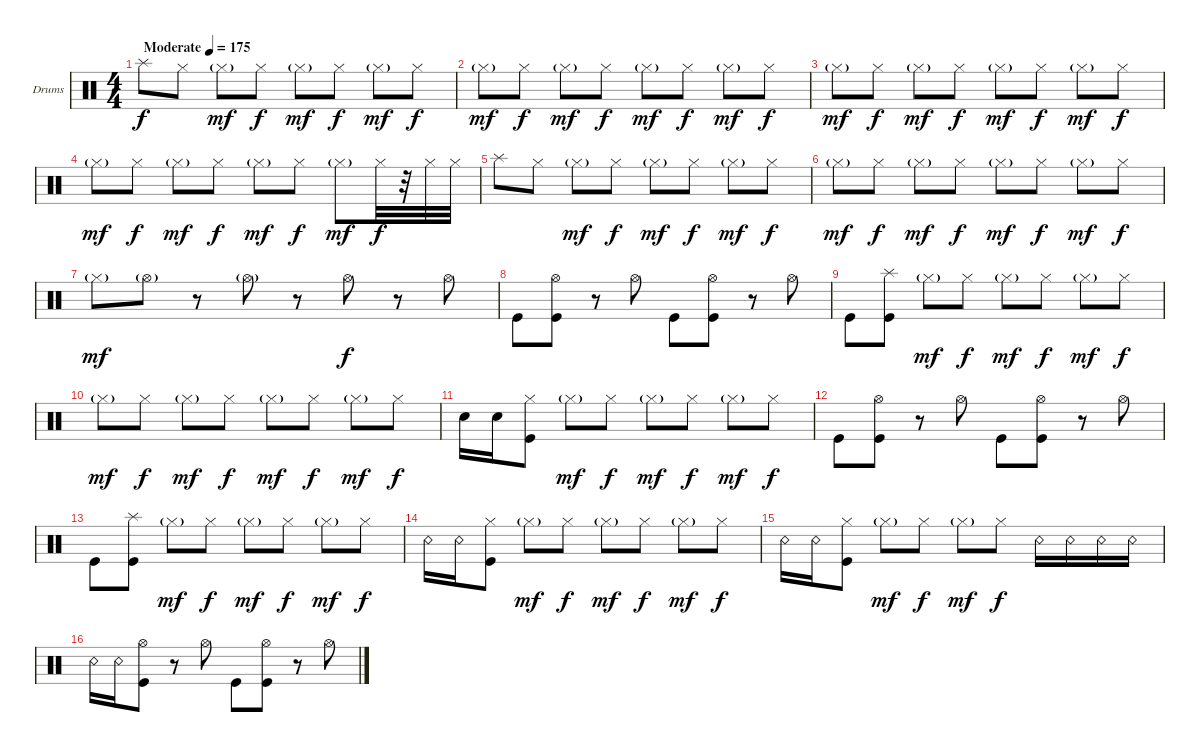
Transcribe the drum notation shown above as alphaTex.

\bracketExtendMode groupsimilarinstruments
\firstSystemTrackNameOrientation horizontal
\otherSystemsTrackNameOrientation horizontal
\track ("Drumkit" "Drums") {instrument percussion}
\staff {score}
\articulation defaults
\ts (4 4)
\beaming (8 2 2 2 2)
\tempo (175 "Moderate")
\clef neutral
\ks c "Splash (hit)".8{dy f} "Hi-Hat (closed)".8 "Hi-Hat (closed)"{g}.8{dy mf} "Hi-Hat (closed)".8{dy f} "Hi-Hat (closed)"{g}.8{dy mf} "Hi-Hat (closed)".8{dy f} "Hi-Hat (closed)"{g}.8{dy mf} "Hi-Hat (closed)".8{dy f}
|
"Hi-Hat (closed)"{g}.8{dy mf} "Hi-Hat (closed)".8{dy f} "Hi-Hat (closed)"{g}.8{dy mf} "Hi-Hat (closed)".8{dy f} "Hi-Hat (closed)"{g}.8{dy mf} "Hi-Hat (closed)".8{dy f} "Hi-Hat (closed)"{g}.8{dy mf} "Hi-Hat (closed)".8{dy f} |
"Hi-Hat (closed)"{g}.8{dy mf} "Hi-Hat (closed)".8{dy f} "Hi-Hat (closed)"{g}.8{dy mf} "Hi-Hat (closed)".8{dy f} "Hi-Hat (closed)"{g}.8{dy mf} "Hi-Hat (closed)".8{dy f} "Hi-Hat (closed)"{g}.8{dy mf} "Hi-Hat (closed)".8{dy f} |
"Hi-Hat (closed)"{g}.8{dy mf} "Hi-Hat (closed)".8{dy f} "Hi-Hat (closed)"{g}.8{dy mf} "Hi-Hat (closed)".8{dy f} "Hi-Hat (closed)"{g}.8{dy mf} "Hi-Hat (closed)".8{dy f} "Hi-Hat (closed)"{g}.8{dy mf} "Hi-Hat (closed)".32{dy f} r.32 "Hi-Hat (closed)".32 "Hi-Hat (closed)".32 |
"Splash (hit)".8 "Hi-Hat (closed)".8 "Hi-Hat (closed)"{g}.8{dy mf} "Hi-Hat (closed)".8{dy f} "Hi-Hat (closed)"{g}.8{dy mf} "Hi-Hat (closed)".8{dy f} "Hi-Hat (closed)"{g}.8{dy mf} "Hi-Hat (closed)".8{dy f} |
"Hi-Hat (closed)"{g}.8{dy mf} "Hi-Hat (closed)".8{dy f} "Hi-Hat (closed)"{g}.8{dy mf} "Hi-Hat (closed)".8{dy f} "Hi-Hat (closed)"{g}.8{dy mf} "Hi-Hat (closed)".8{dy f} "Hi-Hat (closed)"{g}.8{dy mf} "Hi-Hat (closed)".8{dy f} |
"Hi-Hat (closed)"{g}.8{dy mf} "Hi-Hat (open)"{g}.8 r.8 "Hi-Hat (open)"{g}.8 r.8 "Hi-Hat (open)".8{dy f} r.8 "Hi-Hat (open)".8 |
"Kick (hit)".8 ("Hi-Hat (open)" "Kick (hit)").8 r.8 "Hi-Hat (open)".8 "Kick (hit)".8 ("Hi-Hat (open)" "Kick (hit)").8 r.8 "Hi-Hat (open)".8 |
"Kick (hit)".8 ("Splash (hit)" "Kick (hit)").8 "Hi-Hat (closed)"{g}.8{dy mf} "Hi-Hat (closed)".8{dy f} "Hi-Hat (closed)"{g}.8{dy mf} "Hi-Hat (closed)".8{dy f} "Hi-Hat (closed)"{g}.8{dy mf} "Hi-Hat (closed)".8{dy f} |
"Hi-Hat (closed)"{g}.8{dy mf} "Hi-Hat (closed)".8{dy f} "Hi-Hat (closed)"{g}.8{dy mf} "Hi-Hat (closed)".8{dy f} "Hi-Hat (closed)"{g}.8{dy mf} "Hi-Hat (closed)".8{dy f} "Hi-Hat (closed)"{g}.8{dy mf} "Hi-Hat (closed)".8{dy f} |
"Snare (hit) 2".16 "Snare (hit) 2".16 ("Hi-Hat (closed)" "Kick (hit)").8 "Hi-Hat (closed)"{g}.8{dy mf} "Hi-Hat (closed)".8{dy f} "Hi-Hat (closed)"{g}.8{dy mf} "Hi-Hat (closed)".8{dy f} "Hi-Hat (closed)"{g}.8{dy mf} "Hi-Hat (closed)".8{dy f} |
"Kick (hit)".8 ("Hi-Hat (open)" "Kick (hit)").8 r.8 "Hi-Hat (open)".8 "Kick (hit)".8 ("Hi-Hat (open)" "Kick (hit)").8 r.8 "Hi-Hat (open)".8 |
"Kick (hit)".8 ("Splash (hit)" "Kick (hit)").8 "Hi-Hat (closed)"{g}.8{dy mf} "Hi-Hat (closed)".8{dy f} "Hi-Hat (closed)"{g}.8{dy mf} "Hi-Hat (closed)".8{dy f} "Hi-Hat (closed)"{g}.8{dy mf} "Hi-Hat (closed)".8{dy f} |
"Snare (rim shot)".16 "Snare (rim shot)".16 ("Hi-Hat (closed)" "Kick (hit)").8 "Hi-Hat (closed)"{g}.8{dy mf} "Hi-Hat (closed)".8{dy f} "Hi-Hat (closed)"{g}.8{dy mf} "Hi-Hat (closed)".8{dy f} "Hi-Hat (closed)"{g}.8{dy mf} "Hi-Hat (closed)".8{dy f} |
"Snare (rim shot)".16 "Snare (rim shot)".16 ("Hi-Hat (closed)" "Kick (hit)").8 "Hi-Hat (closed)"{g}.8{dy mf} "Hi-Hat (closed)".8{dy f} "Hi-Hat (closed)"{g}.8{dy mf} "Hi-Hat (closed)".8{dy f} "Snare (rim shot)".16 "Snare (rim shot)".16 "Snare (rim shot)".16 "Snare (rim shot)".16 |
"Snare (rim shot)".16 "Snare (rim shot)".16 ("Hi-Hat (open)" "Kick (hit)").8 r.8 "Hi-Hat (open)".8 "Kick (hit)".8 ("Hi-Hat (open)" "Kick (hit)").8 r.8 "Hi-Hat (open)".8
